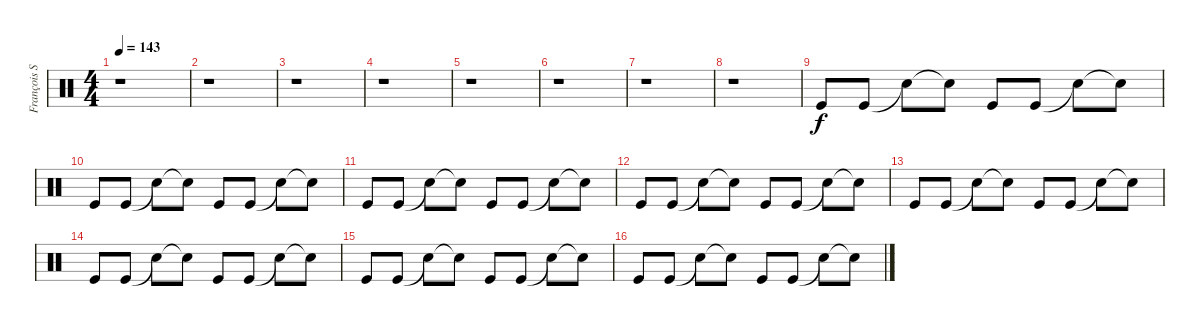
\track ("François Soulier" "François S") {instrument percussion}
\staff {score}
\articulation defaults
\ts (4 4)
\tempo 143
\clef neutral
\ks c
r.1{dy f} |
r.1 |
r.1 |
r.1 |
r.1 |
r.1 |
r.1 |
r.1 |
"Kick (hit)".8 "Kick (hit)".8 "Snare (hit)"{t}.8 "Snare (hit)"{t}.8 "Kick (hit)".8 "Kick (hit)".8 "Snare (hit)"{t}.8 "Snare (hit)"{t}.8 |
"Kick (hit)".8 "Kick (hit)".8 "Snare (hit)"{t}.8 "Snare (hit)"{t}.8 "Kick (hit)".8 "Kick (hit)".8 "Snare (hit)"{t}.8 "Snare (hit)"{t}.8 |
"Kick (hit)".8 "Kick (hit)".8 "Snare (hit)"{t}.8 "Snare (hit)"{t}.8 "Kick (hit)".8 "Kick (hit)".8 "Snare (hit)"{t}.8 "Snare (hit)"{t}.8 |
"Kick (hit)".8 "Kick (hit)".8 "Snare (hit)"{t}.8 "Snare (hit)"{t}.8 "Kick (hit)".8 "Kick (hit)".8 "Snare (hit)"{t}.8 "Snare (hit)"{t}.8 |
"Kick (hit)".8 "Kick (hit)".8 "Snare (hit)"{t}.8 "Snare (hit)"{t}.8 "Kick (hit)".8 "Kick (hit)".8 "Snare (hit)"{t}.8 "Snare (hit)"{t}.8 |
"Kick (hit)".8 "Kick (hit)".8 "Snare (hit)"{t}.8 "Snare (hit)"{t}.8 "Kick (hit)".8 "Kick (hit)".8 "Snare (hit)"{t}.8 "Snare (hit)"{t}.8 |
"Kick (hit)".8 "Kick (hit)".8 "Snare (hit)"{t}.8 "Snare (hit)"{t}.8 "Kick (hit)".8 "Kick (hit)".8 "Snare (hit)"{t}.8 "Snare (hit)"{t}.8 |
"Kick (hit)".8 "Kick (hit)".8 "Snare (hit)"{t}.8 "Snare (hit)"{t}.8 "Kick (hit)".8 "Kick (hit)".8 "Snare (hit)"{t}.8 "Snare (hit)"{t}.8
